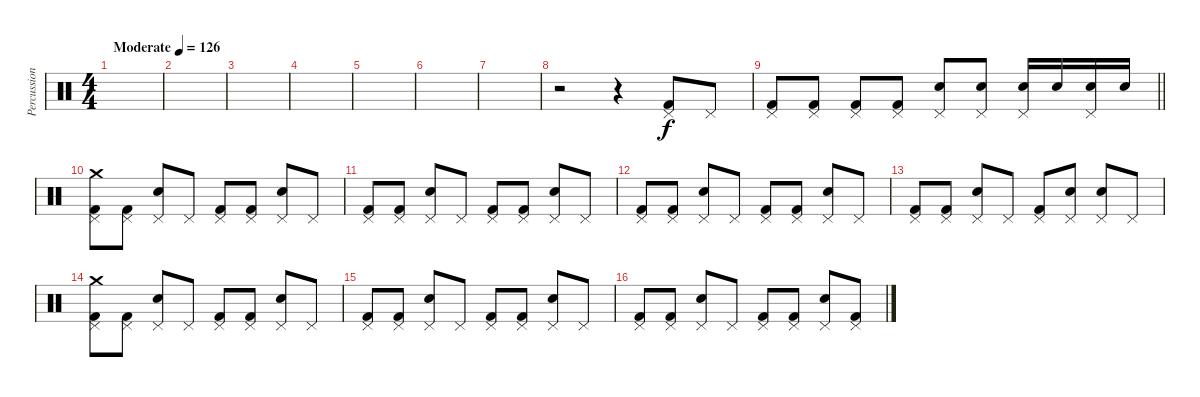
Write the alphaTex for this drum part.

\track ("Percussion" "Percussion") {instrument percussion}
\staff {score}
\articulation defaults
\ts (4 4)
\tempo (126 "Moderate")
\clef neutral
\ks c
|
|
|
|
|
|
|
r.2 r.4 ("Pedal Hi-Hat (hit)" "Kick (hit) 2").8 "Pedal Hi-Hat (hit)".8 |
\barLineRight lightlight
("Pedal Hi-Hat (hit)" "Kick (hit) 2").8 ("Pedal Hi-Hat (hit)" "Kick (hit) 2").8 ("Pedal Hi-Hat (hit)" "Kick (hit) 2").8 ("Pedal Hi-Hat (hit)" "Kick (hit) 2").8 ("Pedal Hi-Hat (hit)" "Snare (hit) 2").8 ("Pedal Hi-Hat (hit)" "Snare (hit) 2").8 ("Pedal Hi-Hat (hit)" "Snare (hit) 2").16 "Snare (hit) 2".16 ("Pedal Hi-Hat (hit)" "Snare (hit) 2").16 "Snare (hit) 2".16 |
("Pedal Hi-Hat (hit)" "Crash medium (hit)" "Kick (hit) 2").8 ("Pedal Hi-Hat (hit)" "Kick (hit) 2").8 ("Pedal Hi-Hat (hit)" "Snare (hit) 2").8 "Pedal Hi-Hat (hit)".8 ("Pedal Hi-Hat (hit)" "Kick (hit) 2").8 ("Pedal Hi-Hat (hit)" "Kick (hit) 2").8 ("Pedal Hi-Hat (hit)" "Snare (hit) 2").8 "Pedal Hi-Hat (hit)".8 |
("Pedal Hi-Hat (hit)" "Kick (hit) 2").8 ("Pedal Hi-Hat (hit)" "Kick (hit) 2").8 ("Pedal Hi-Hat (hit)" "Snare (hit) 2").8 "Pedal Hi-Hat (hit)".8 ("Pedal Hi-Hat (hit)" "Kick (hit) 2").8 ("Pedal Hi-Hat (hit)" "Kick (hit) 2").8 ("Pedal Hi-Hat (hit)" "Snare (hit) 2").8 "Pedal Hi-Hat (hit)".8 |
("Pedal Hi-Hat (hit)" "Kick (hit) 2").8 ("Pedal Hi-Hat (hit)" "Kick (hit) 2").8 ("Pedal Hi-Hat (hit)" "Snare (hit) 2").8 "Pedal Hi-Hat (hit)".8 ("Pedal Hi-Hat (hit)" "Kick (hit) 2").8 ("Pedal Hi-Hat (hit)" "Kick (hit) 2").8 ("Pedal Hi-Hat (hit)" "Snare (hit) 2").8 "Pedal Hi-Hat (hit)".8 |
("Pedal Hi-Hat (hit)" "Kick (hit) 2").8 ("Pedal Hi-Hat (hit)" "Kick (hit) 2").8 ("Pedal Hi-Hat (hit)" "Snare (hit) 2").8 "Pedal Hi-Hat (hit)".8 ("Pedal Hi-Hat (hit)" "Kick (hit) 2").8 ("Pedal Hi-Hat (hit)" "Snare (hit) 2").8 ("Pedal Hi-Hat (hit)" "Snare (hit) 2").8 "Pedal Hi-Hat (hit)".8 |
("Pedal Hi-Hat (hit)" "Crash medium (hit)" "Kick (hit) 2").8 ("Pedal Hi-Hat (hit)" "Kick (hit) 2").8 ("Pedal Hi-Hat (hit)" "Snare (hit) 2").8 "Pedal Hi-Hat (hit)".8 ("Pedal Hi-Hat (hit)" "Kick (hit) 2").8 ("Pedal Hi-Hat (hit)" "Kick (hit) 2").8 ("Pedal Hi-Hat (hit)" "Snare (hit) 2").8 "Pedal Hi-Hat (hit)".8 |
("Pedal Hi-Hat (hit)" "Kick (hit) 2").8 ("Pedal Hi-Hat (hit)" "Kick (hit) 2").8 ("Pedal Hi-Hat (hit)" "Snare (hit) 2").8 "Pedal Hi-Hat (hit)".8 ("Pedal Hi-Hat (hit)" "Kick (hit) 2").8 ("Pedal Hi-Hat (hit)" "Kick (hit) 2").8 ("Pedal Hi-Hat (hit)" "Snare (hit) 2").8 "Pedal Hi-Hat (hit)".8 |
("Pedal Hi-Hat (hit)" "Kick (hit) 2").8 ("Pedal Hi-Hat (hit)" "Kick (hit) 2").8 ("Pedal Hi-Hat (hit)" "Snare (hit) 2").8 "Pedal Hi-Hat (hit)".8 ("Pedal Hi-Hat (hit)" "Kick (hit) 2").8 ("Pedal Hi-Hat (hit)" "Kick (hit) 2").8 ("Pedal Hi-Hat (hit)" "Snare (hit) 2").8 ("Pedal Hi-Hat (hit)" "Kick (hit) 2").8
